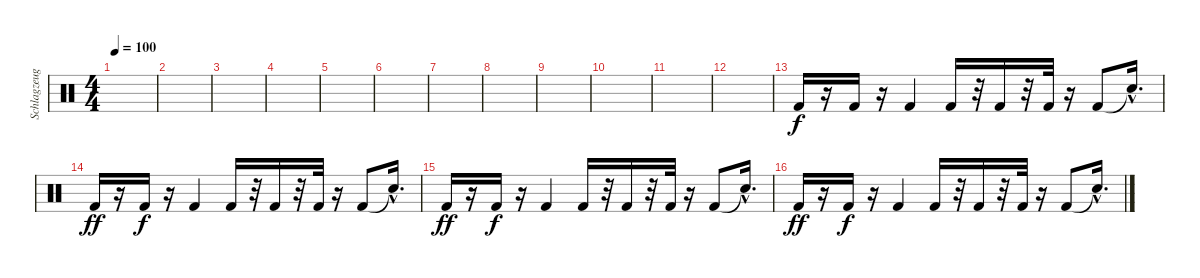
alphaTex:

\track ("Schlagzeug" "Schlagzeug") {instrument percussion}
\staff {score}
\articulation defaults
\ts (4 4)
\tempo 100
\clef neutral
\ks c
|
|
|
|
|
|
|
|
|
|
|
|
"Kick (hit) 2".16 r.16 "Kick (hit) 2".16{dy f} r.16 "Kick (hit) 2".4 "Kick (hit) 2".16 r.32 "Kick (hit) 2".16 r.32 "Kick (hit) 2".32 r.16 "Kick (hit) 2".8 "Snare (hit)"{hac t}.16{d} |
"Kick (hit) 2".16{dy ff} r.16 "Kick (hit) 2".16{dy f} r.16 "Kick (hit) 2".4 "Kick (hit) 2".16 r.32 "Kick (hit) 2".16 r.32 "Kick (hit) 2".32 r.16 "Kick (hit) 2".8 "Snare (hit)"{hac t}.16{d} |
"Kick (hit) 2".16{dy ff} r.16 "Kick (hit) 2".16{dy f} r.16 "Kick (hit) 2".4 "Kick (hit) 2".16 r.32 "Kick (hit) 2".16 r.32 "Kick (hit) 2".32 r.16 "Kick (hit) 2".8 "Snare (hit)"{hac t}.16{d} |
"Kick (hit) 2".16{dy ff} r.16 "Kick (hit) 2".16{dy f} r.16 "Kick (hit) 2".4 "Kick (hit) 2".16 r.32 "Kick (hit) 2".16 r.32 "Kick (hit) 2".32 r.16 "Kick (hit) 2".8 "Snare (hit)"{hac t}.16{d}
